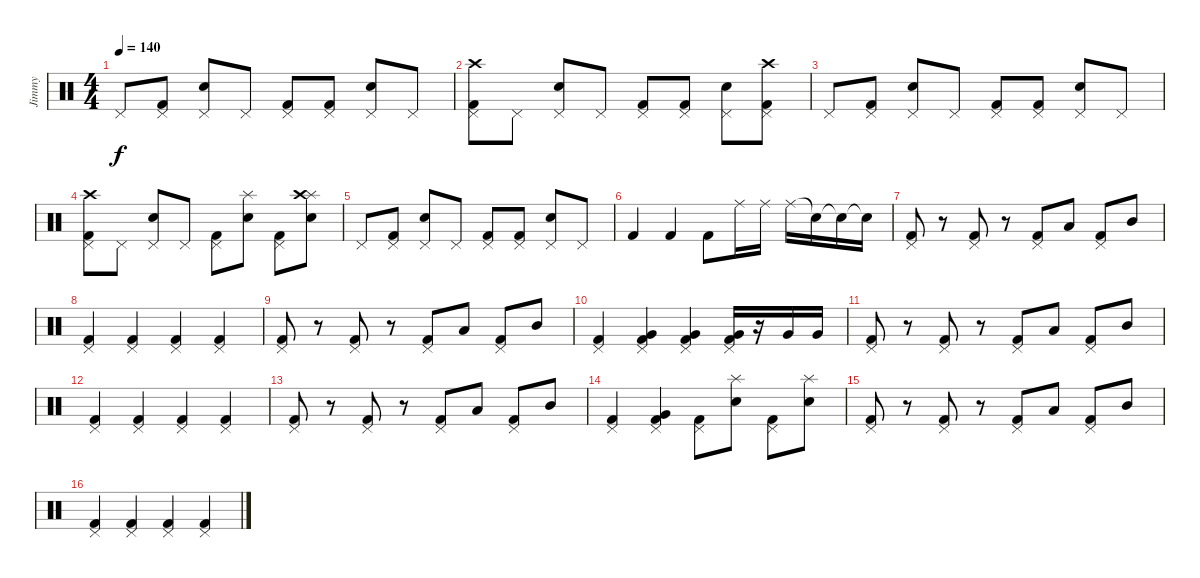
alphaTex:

\track ("Jimmy" "Jimmy") {instrument percussion}
\staff {score}
\articulation defaults
\ts (4 4)
\tempo 140
\clef neutral
\ks c "Pedal Hi-Hat (hit)".8{dy f}
("Kick (hit) 2" "Pedal Hi-Hat (hit)").8 ("Snare (hit) 2" "Pedal Hi-Hat (hit)").8 "Pedal Hi-Hat (hit)".8 ("Kick (hit) 2" "Pedal Hi-Hat (hit)").8 ("Kick (hit) 2" "Pedal Hi-Hat (hit)").8 ("Snare (hit) 2" "Pedal Hi-Hat (hit)").8 "Pedal Hi-Hat (hit)".8 |
("Kick (hit) 2" "Pedal Hi-Hat (hit)" "Crash high (hit)").8 "Pedal Hi-Hat (hit)".8 ("Snare (hit) 2" "Pedal Hi-Hat (hit)").8 "Pedal Hi-Hat (hit)".8 ("Kick (hit) 2" "Pedal Hi-Hat (hit)").8 ("Kick (hit) 2" "Pedal Hi-Hat (hit)").8 ("Snare (hit) 2" "Pedal Hi-Hat (hit)").8 ("Kick (hit) 2" "Pedal Hi-Hat (hit)" "Crash high (hit)").8 |
"Pedal Hi-Hat (hit)".8 ("Kick (hit) 2" "Pedal Hi-Hat (hit)").8 ("Snare (hit) 2" "Pedal Hi-Hat (hit)").8 "Pedal Hi-Hat (hit)".8 ("Kick (hit) 2" "Pedal Hi-Hat (hit)").8 ("Kick (hit) 2" "Pedal Hi-Hat (hit)").8 ("Snare (hit) 2" "Pedal Hi-Hat (hit)").8 "Pedal Hi-Hat (hit)".8 |
("Kick (hit) 2" "Pedal Hi-Hat (hit)" "Crash high (hit)").8 "Pedal Hi-Hat (hit)".8 ("Snare (hit) 2" "Pedal Hi-Hat (hit)").8 "Pedal Hi-Hat (hit)".8 ("Kick (hit) 2" "Pedal Hi-Hat (hit)").8 ("Snare (hit) 2" "Splash (hit)").8 ("Kick (hit) 2" "Pedal Hi-Hat (hit)").8 ("Snare (hit) 2" "Splash (hit)" "Crash high (hit)").8 |
"Pedal Hi-Hat (hit)".8 ("Kick (hit) 2" "Pedal Hi-Hat (hit)").8 ("Snare (hit) 2" "Pedal Hi-Hat (hit)").8 "Pedal Hi-Hat (hit)".8 ("Kick (hit) 2" "Pedal Hi-Hat (hit)").8 ("Kick (hit) 2" "Pedal Hi-Hat (hit)").8 ("Snare (hit) 2" "Pedal Hi-Hat (hit)").8 "Pedal Hi-Hat (hit)".8 |
"Kick (hit) 2".4 "Kick (hit) 2".4 "Kick (hit) 2".8 "Ride (middle)".16 "Ride (middle)".16 "Ride (middle)".16 "Snare (hit) 2"{t}.16 "Snare (hit)"{t}.16 "Snare (hit)"{t}.16 |
("Kick (hit) 2" "Pedal Hi-Hat (hit)").8 r.8 ("Kick (hit) 2" "Pedal Hi-Hat (hit)").8 r.8 ("Kick (hit) 2" "Pedal Hi-Hat (hit)").8 "Low Tom (hit)".8 ("Kick (hit) 2" "Pedal Hi-Hat (hit)").8 "Mid Tom (hit)".8 |
("Kick (hit) 2" "Pedal Hi-Hat (hit)").4 ("Kick (hit) 2" "Pedal Hi-Hat (hit)").4 ("Kick (hit) 2" "Pedal Hi-Hat (hit)").4 ("Kick (hit) 2" "Pedal Hi-Hat (hit)").4 |
("Kick (hit) 2" "Pedal Hi-Hat (hit)").8 r.8 ("Kick (hit) 2" "Pedal Hi-Hat (hit)").8 r.8 ("Kick (hit) 2" "Pedal Hi-Hat (hit)").8 "Low Tom (hit)".8 ("Kick (hit) 2" "Pedal Hi-Hat (hit)").8 "Mid Tom (hit)".8 |
("Kick (hit) 2" "Pedal Hi-Hat (hit)").4 ("Kick (hit) 2" "Pedal Hi-Hat (hit)" "Very Low Tom (hit)").4 ("Kick (hit) 2" "Pedal Hi-Hat (hit)" "Very Low Tom (hit)").4 ("Kick (hit) 2" "Pedal Hi-Hat (hit)" "Very Low Tom (hit)").16 r.16 "Very Low Tom (hit)".16 "Very Low Tom (hit)".16 |
("Kick (hit) 2" "Pedal Hi-Hat (hit)").8 r.8 ("Kick (hit) 2" "Pedal Hi-Hat (hit)").8 r.8 ("Kick (hit) 2" "Pedal Hi-Hat (hit)").8 "Low Tom (hit)".8 ("Kick (hit) 2" "Pedal Hi-Hat (hit)").8 "Mid Tom (hit)".8 |
("Kick (hit) 2" "Pedal Hi-Hat (hit)").4 ("Kick (hit) 2" "Pedal Hi-Hat (hit)").4 ("Kick (hit) 2" "Pedal Hi-Hat (hit)").4 ("Kick (hit) 2" "Pedal Hi-Hat (hit)").4 |
("Kick (hit) 2" "Pedal Hi-Hat (hit)").8 r.8 ("Kick (hit) 2" "Pedal Hi-Hat (hit)").8 r.8 ("Kick (hit) 2" "Pedal Hi-Hat (hit)").8 "Low Tom (hit)".8 ("Kick (hit) 2" "Pedal Hi-Hat (hit)").8 "Mid Tom (hit)".8 |
("Kick (hit) 2" "Pedal Hi-Hat (hit)").4 ("Kick (hit) 2" "Pedal Hi-Hat (hit)" "Very Low Tom (hit)").4 ("Kick (hit) 2" "Pedal Hi-Hat (hit)").8 ("Snare (hit) 2" "Splash (hit)").8 ("Kick (hit) 2" "Pedal Hi-Hat (hit)").8 ("Snare (hit) 2" "Splash (hit)").8 |
("Kick (hit) 2" "Pedal Hi-Hat (hit)").8 r.8 ("Kick (hit) 2" "Pedal Hi-Hat (hit)").8 r.8 ("Kick (hit) 2" "Pedal Hi-Hat (hit)").8 "Low Tom (hit)".8 ("Kick (hit) 2" "Pedal Hi-Hat (hit)").8 "Mid Tom (hit)".8 |
("Kick (hit) 2" "Pedal Hi-Hat (hit)").4 ("Kick (hit) 2" "Pedal Hi-Hat (hit)").4 ("Kick (hit) 2" "Pedal Hi-Hat (hit)").4 ("Kick (hit) 2" "Pedal Hi-Hat (hit)").4
